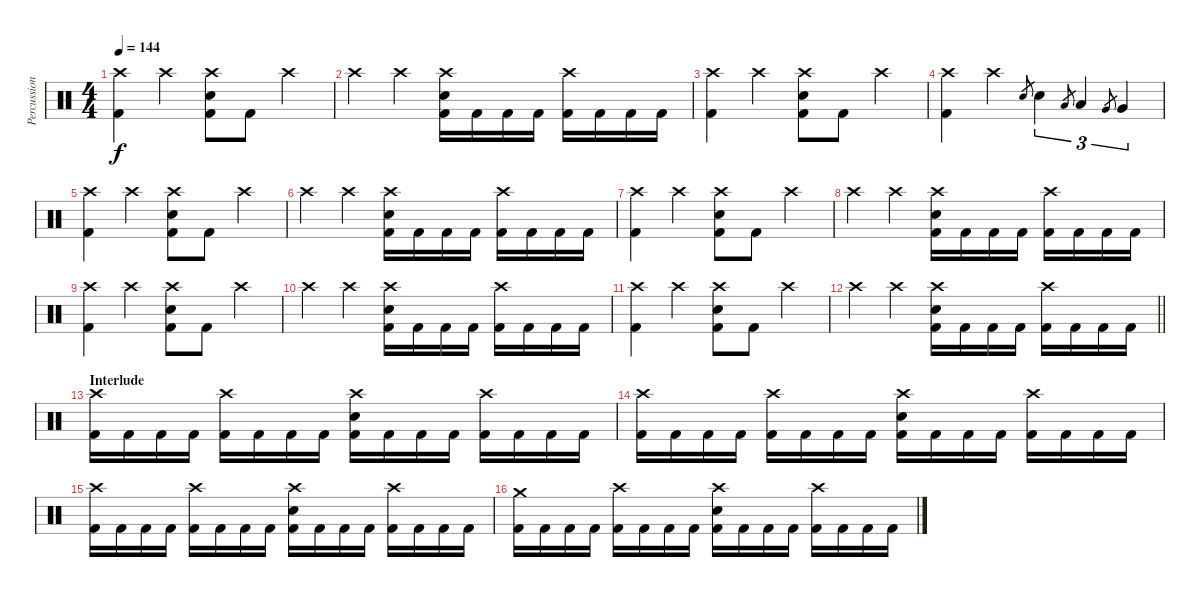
\track ("Percussion" "Percussion") {instrument percussion}
\staff {score}
\articulation defaults
\ts (4 4)
\tempo 144
\clef neutral
\ks c
("Crash high (hit)" "Kick (hit) 2").4{dy f} "Crash high (hit)".4 ("Crash high (hit)" "Snare (hit) 2" "Kick (hit) 2").8 "Kick (hit) 2".8 "Crash high (hit)".4 |
"Crash high (hit)".4 "Crash high (hit)".4 ("Crash high (hit)" "Snare (hit) 2" "Kick (hit) 2").16 "Kick (hit) 2".16 "Kick (hit) 2".16 "Kick (hit) 2".16 ("Crash high (hit)" "Kick (hit) 2").16 "Kick (hit) 2".16 "Kick (hit) 2".16 "Kick (hit) 2".16 |
("Crash high (hit)" "Kick (hit) 2").4 "Crash high (hit)".4 ("Crash high (hit)" "Snare (hit) 2" "Kick (hit) 2").8 "Kick (hit) 2".8 "Crash high (hit)".4 |
("Crash high (hit)" "Kick (hit) 2").4 "Crash high (hit)".4 "Snare (hit) 2".8{gr} "Snare (hit) 2".4{tu (3 2)} "Low Tom (hit)".8{gr} "Low Tom (hit)".4{tu (3 2)} "Very Low Tom (hit)".8{gr} "Very Low Tom (hit)".4{tu (3 2)} |
("Crash high (hit)" "Kick (hit) 2").4 "Crash high (hit)".4 ("Crash high (hit)" "Snare (hit) 2" "Kick (hit) 2").8 "Kick (hit) 2".8 "Crash high (hit)".4 |
"Crash high (hit)".4 "Crash high (hit)".4 ("Crash high (hit)" "Snare (hit) 2" "Kick (hit) 2").16 "Kick (hit) 2".16 "Kick (hit) 2".16 "Kick (hit) 2".16 ("Crash high (hit)" "Kick (hit) 2").16 "Kick (hit) 2".16 "Kick (hit) 2".16 "Kick (hit) 2".16 |
("Crash high (hit)" "Kick (hit) 2").4 "Crash high (hit)".4 ("Crash high (hit)" "Snare (hit) 2" "Kick (hit) 2").8 "Kick (hit) 2".8 "Crash high (hit)".4 |
"Crash high (hit)".4 "Crash high (hit)".4 ("Crash high (hit)" "Snare (hit) 2" "Kick (hit) 2").16 "Kick (hit) 2".16 "Kick (hit) 2".16 "Kick (hit) 2".16 ("Crash high (hit)" "Kick (hit) 2").16 "Kick (hit) 2".16 "Kick (hit) 2".16 "Kick (hit) 2".16 |
("Crash high (hit)" "Kick (hit) 2").4 "Crash high (hit)".4 ("Crash high (hit)" "Snare (hit) 2" "Kick (hit) 2").8 "Kick (hit) 2".8 "Crash high (hit)".4 |
"Crash high (hit)".4 "Crash high (hit)".4 ("Crash high (hit)" "Snare (hit) 2" "Kick (hit) 2").16 "Kick (hit) 2".16 "Kick (hit) 2".16 "Kick (hit) 2".16 ("Crash high (hit)" "Kick (hit) 2").16 "Kick (hit) 2".16 "Kick (hit) 2".16 "Kick (hit) 2".16 |
("Crash high (hit)" "Kick (hit) 2").4 "Crash high (hit)".4 ("Crash high (hit)" "Snare (hit) 2" "Kick (hit) 2").8 "Kick (hit) 2".8 "Crash high (hit)".4 |
\barLineRight lightlight "Crash high (hit)".4 "Crash high (hit)".4
("Crash high (hit)" "Snare (hit) 2" "Kick (hit) 2").16 "Kick (hit) 2".16 "Kick (hit) 2".16 "Kick (hit) 2".16 ("Crash high (hit)" "Kick (hit) 2").16 "Kick (hit) 2".16 "Kick (hit) 2".16 "Kick (hit) 2".16 |
\section ("" "Interlude")
("Crash high (hit)" "Kick (hit) 2").16 "Kick (hit) 2".16 "Kick (hit) 2".16 "Kick (hit) 2".16 ("Crash high (hit)" "Kick (hit) 2").16 "Kick (hit) 2".16 "Kick (hit) 2".16 "Kick (hit) 2".16 ("Crash high (hit)" "Snare (hit) 2" "Kick (hit) 2").16 "Kick (hit) 2".16 "Kick (hit) 2".16 "Kick (hit) 2".16 ("Crash high (hit)" "Kick (hit) 2").16 "Kick (hit) 2".16 "Kick (hit) 2".16 "Kick (hit) 2".16 |
("Crash high (hit)" "Kick (hit) 2").16 "Kick (hit) 2".16 "Kick (hit) 2".16 "Kick (hit) 2".16 ("Crash high (hit)" "Kick (hit) 2").16 "Kick (hit) 2".16 "Kick (hit) 2".16 "Kick (hit) 2".16 ("Crash high (hit)" "Snare (hit) 2" "Kick (hit) 2").16 "Kick (hit) 2".16 "Kick (hit) 2".16 "Kick (hit) 2".16 ("Crash high (hit)" "Kick (hit) 2").16 "Kick (hit) 2".16 "Kick (hit) 2".16 "Kick (hit) 2".16 |
("Crash high (hit)" "Kick (hit) 2").16 "Kick (hit) 2".16 "Kick (hit) 2".16 "Kick (hit) 2".16 ("Crash high (hit)" "Kick (hit) 2").16 "Kick (hit) 2".16 "Kick (hit) 2".16 "Kick (hit) 2".16 ("Crash high (hit)" "Snare (hit) 2" "Kick (hit) 2").16 "Kick (hit) 2".16 "Kick (hit) 2".16 "Kick (hit) 2".16 ("Crash high (hit)" "Kick (hit) 2").16 "Kick (hit) 2".16 "Kick (hit) 2".16 "Kick (hit) 2".16 |
("Crash medium (hit)" "Kick (hit) 2").16 "Kick (hit) 2".16 "Kick (hit) 2".16 "Kick (hit) 2".16 ("Crash high (hit)" "Kick (hit) 2").16 "Kick (hit) 2".16 "Kick (hit) 2".16 "Kick (hit) 2".16 ("Crash high (hit)" "Snare (hit) 2" "Kick (hit) 2").16 "Kick (hit) 2".16 "Kick (hit) 2".16 "Kick (hit) 2".16 ("Crash high (hit)" "Kick (hit) 2").16 "Kick (hit) 2".16 "Kick (hit) 2".16 "Kick (hit) 2".16
